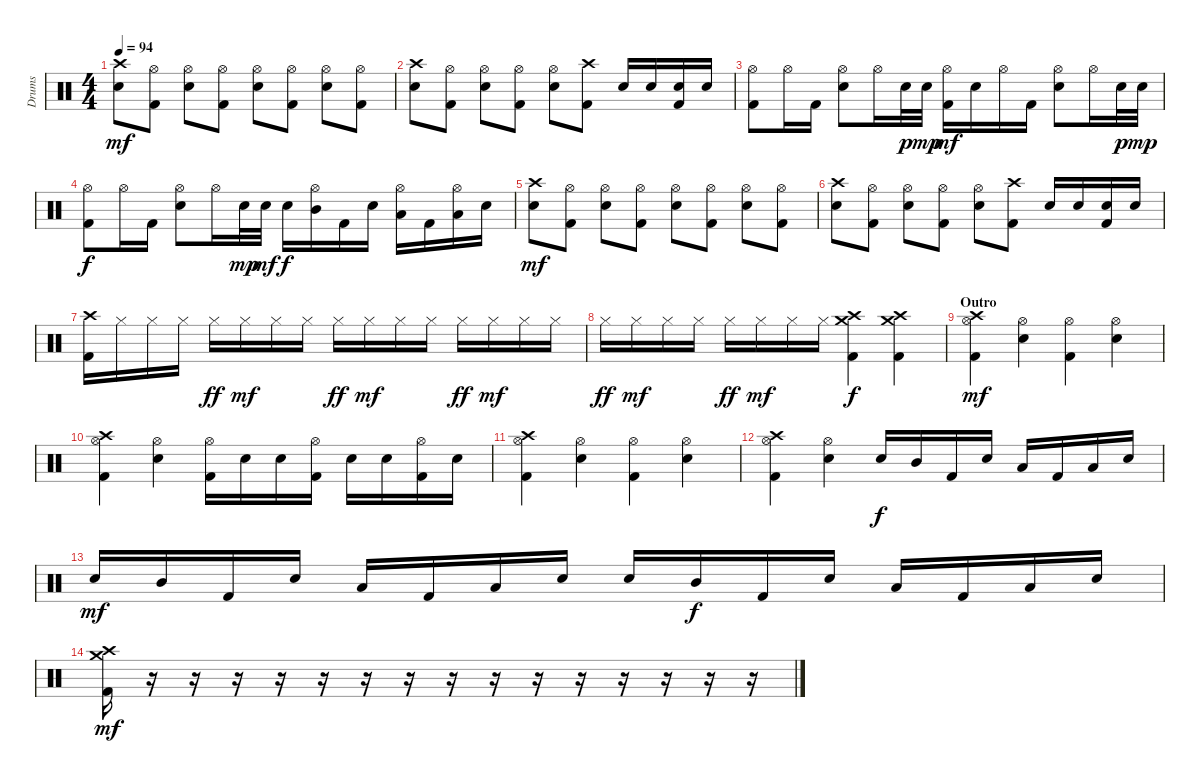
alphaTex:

\track ("Drums" "Drums") {instrument percussion}
\staff {score}
\articulation defaults
\ts (4 4)
\tempo 94
\clef neutral
\ks c
("Crash high (hit)" "Snare (hit) 2").8{dy mf} ("Hi-Hat (open)" "Kick (hit) 2").8 ("Hi-Hat (open)" "Snare (hit) 2").8 ("Hi-Hat (open)" "Kick (hit) 2").8 ("Hi-Hat (open)" "Snare (hit) 2").8 ("Hi-Hat (open)" "Kick (hit) 2").8 ("Hi-Hat (open)" "Snare (hit) 2").8 ("Hi-Hat (open)" "Kick (hit) 2").8 |
("Crash high (hit)" "Snare (hit) 2").8 ("Hi-Hat (open)" "Kick (hit) 2").8 ("Hi-Hat (open)" "Snare (hit) 2").8 ("Hi-Hat (open)" "Kick (hit) 2").8 ("Hi-Hat (open)" "Snare (hit) 2").8 ("Crash high (hit)" "Kick (hit) 2").8 "Snare (hit) 2".16 "Snare (hit) 2".16 ("Snare (hit) 2" "Kick (hit) 2").16 "Snare (hit) 2".16 |
("Hi-Hat (open)" "Kick (hit) 2").8 "Hi-Hat (open)".16 "Kick (hit) 2".16 ("Hi-Hat (open)" "Snare (hit) 2").8 "Hi-Hat (open)".16 "Snare (hit) 2".32{dy p} "Snare (hit) 2".32{dy mp} ("Hi-Hat (open)" "Kick (hit) 2").16{dy mf} "Snare (hit) 2".16 "Hi-Hat (open)".16 "Kick (hit) 2".16 ("Hi-Hat (open)" "Snare (hit) 2").8 "Hi-Hat (open)".16 "Snare (hit) 2".32{dy p} "Snare (hit) 2".32{dy mp} |
("Hi-Hat (open)" "Kick (hit) 2").8{dy f} "Hi-Hat (open)".16 "Kick (hit) 2".16 ("Hi-Hat (open)" "Snare (hit) 2").8 "Hi-Hat (open)".16 "Snare (hit) 2".32{dy mp} "Snare (hit) 2".32{dy mf} "Snare (hit) 2".16{dy f} ("Hi-Hat (open)" "Mid Tom (hit)").16 "Kick (hit) 2".16 "Snare (hit) 2".16 ("Hi-Hat (open)" "Low Tom (hit)").16 "Kick (hit) 2".16 ("Hi-Hat (open)" "Low Floor Tom (hit)").16 "Snare (hit) 2".16 |
("Crash high (hit)" "Snare (hit) 2").8{dy mf} ("Hi-Hat (open)" "Kick (hit) 2").8 ("Hi-Hat (open)" "Snare (hit) 2").8 ("Hi-Hat (open)" "Kick (hit) 2").8 ("Hi-Hat (open)" "Snare (hit) 2").8 ("Hi-Hat (open)" "Kick (hit) 2").8 ("Hi-Hat (open)" "Snare (hit) 2").8 ("Hi-Hat (open)" "Kick (hit) 2").8 |
("Crash high (hit)" "Snare (hit) 2").8 ("Hi-Hat (open)" "Kick (hit) 2").8 ("Hi-Hat (open)" "Snare (hit) 2").8 ("Hi-Hat (open)" "Kick (hit) 2").8 ("Hi-Hat (open)" "Snare (hit) 2").8 ("Crash high (hit)" "Kick (hit) 2").8 "Snare (hit) 2".16 "Snare (hit) 2".16 ("Snare (hit) 2" "Kick (hit) 2").16 "Snare (hit) 2".16 |
("Crash high (hit)" "Kick (hit) 2").16 "Hi-Hat (closed)".16 "Hi-Hat (closed)".16 "Hi-Hat (closed)".16 "Hi-Hat (closed)".16{dy ff} "Hi-Hat (closed)".16{dy mf} "Hi-Hat (closed)".16 "Hi-Hat (closed)".16 "Hi-Hat (closed)".16{dy ff} "Hi-Hat (closed)".16{dy mf} "Hi-Hat (closed)".16 "Hi-Hat (closed)".16 "Hi-Hat (closed)".16{dy ff} "Hi-Hat (closed)".16{dy mf} "Hi-Hat (closed)".16 "Hi-Hat (closed)".16 |
"Hi-Hat (closed)".16{dy ff} "Hi-Hat (closed)".16{dy mf} "Hi-Hat (closed)".16 "Hi-Hat (closed)".16 "Hi-Hat (closed)".16{dy ff} "Hi-Hat (closed)".16{dy mf} "Hi-Hat (closed)".16 "Hi-Hat (closed)".16 ("Crash high (hit)" "Crash medium (hit)" "Kick (hit) 2").4{dy f} ("Crash high (hit)" "Crash medium (hit)" "Kick (hit) 2").4 |
\section ("" "Outro")
("Hi-Hat (open)" "Crash high (hit)" "Kick (hit) 2").4{dy mf} ("Hi-Hat (open)" "Snare (hit) 2").4 ("Hi-Hat (open)" "Kick (hit) 2").4 ("Hi-Hat (open)" "Snare (hit) 2").4 |
("Hi-Hat (open)" "Crash high (hit)" "Kick (hit) 2").4 ("Hi-Hat (open)" "Snare (hit) 2").4 ("Hi-Hat (open)" "Kick (hit) 2").16 "Snare (hit) 2".16 "Snare (hit) 2".16 ("Hi-Hat (open)" "Kick (hit) 2").16 "Snare (hit) 2".16 "Snare (hit) 2".16 ("Hi-Hat (open)" "Kick (hit) 2").16 "Snare (hit) 2".16 |
("Hi-Hat (open)" "Crash high (hit)" "Kick (hit) 2").4 ("Hi-Hat (open)" "Snare (hit) 2").4 ("Hi-Hat (open)" "Kick (hit) 2").4 ("Hi-Hat (open)" "Snare (hit) 2").4 |
("Hi-Hat (open)" "Crash high (hit)" "Kick (hit) 2").4 ("Hi-Hat (open)" "Snare (hit) 2").4 "Snare (hit) 2".16{dy f} "Mid Tom (hit)".16 "Kick (hit) 2".16 "Snare (hit) 2".16 "Low Tom (hit)".16 "Kick (hit) 2".16 "Low Floor Tom (hit)".16 "Snare (hit) 2".16 |
"Snare (hit) 2".16{dy mf} "Mid Tom (hit)".16 "Kick (hit) 2".16 "Snare (hit) 2".16 "Low Tom (hit)".16 "Kick (hit) 2".16 "Low Floor Tom (hit)".16 "Snare (hit) 2".16 "Snare (hit) 2".16 "Mid Tom (hit)".16{dy f} "Kick (hit) 2".16 "Snare (hit) 2".16 "Low Tom (hit)".16 "Kick (hit) 2".16 "Low Floor Tom (hit)".16 "Snare (hit) 2".16 |
("Crash high (hit)" "Crash medium (hit)" "Kick (hit) 2").16{dy mf} r.16 r.16 r.16 r.16 r.16 r.16 r.16 r.16 r.16 r.16 r.16 r.16 r.16 r.16 r.16
